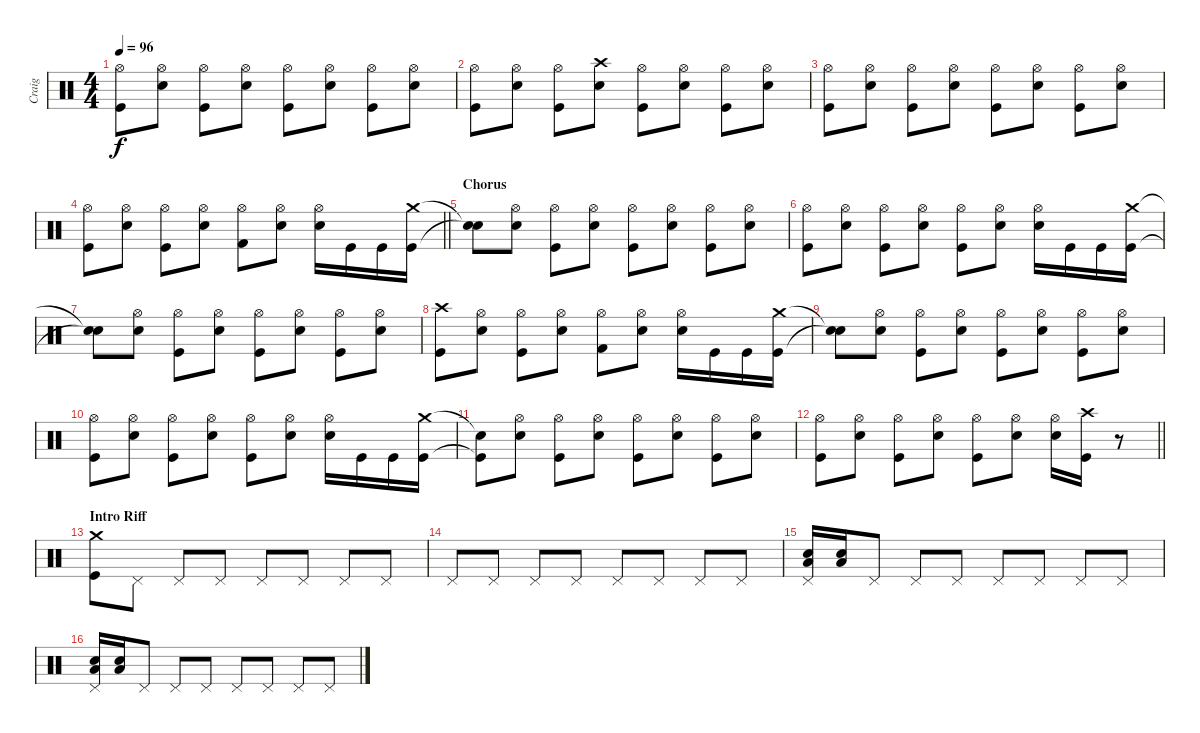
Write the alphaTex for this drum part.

\track ("Craig" "Craig") {instrument percussion}
\staff {score}
\articulation defaults
\ts (4 4)
\tempo 96
\clef neutral
\ks c
("Hi-Hat (open)" "Kick (hit)").8{dy f} ("Hi-Hat (open)" "Snare (hit) 2").8 ("Hi-Hat (open)" "Kick (hit)").8 ("Hi-Hat (open)" "Snare (hit) 2").8 ("Hi-Hat (open)" "Kick (hit)").8 ("Hi-Hat (open)" "Snare (hit) 2").8 ("Hi-Hat (open)" "Kick (hit)").8 ("Hi-Hat (open)" "Snare (hit) 2").8 |
("Hi-Hat (open)" "Kick (hit)").8 ("Hi-Hat (open)" "Snare (hit) 2").8 ("Hi-Hat (open)" "Kick (hit)").8 ("Crash high (hit)" "Snare (hit) 2").8 ("Hi-Hat (open)" "Kick (hit)").8 ("Hi-Hat (open)" "Snare (hit) 2").8 ("Hi-Hat (open)" "Kick (hit)").8 ("Hi-Hat (open)" "Snare (hit) 2").8 |
("Hi-Hat (open)" "Kick (hit)").8 ("Hi-Hat (open)" "Snare (hit) 2").8 ("Hi-Hat (open)" "Kick (hit)").8 ("Hi-Hat (open)" "Snare (hit) 2").8 ("Hi-Hat (open)" "Kick (hit)").8 ("Hi-Hat (open)" "Snare (hit) 2").8 ("Hi-Hat (open)" "Kick (hit)").8 ("Hi-Hat (open)" "Snare (hit) 2").8 |
\barLineRight lightlight
("Hi-Hat (open)" "Kick (hit)").8 ("Hi-Hat (open)" "Snare (hit) 2").8 ("Hi-Hat (open)" "Kick (hit)").8 ("Hi-Hat (open)" "Snare (hit) 2").8 ("Hi-Hat (open)" "Kick (hit) 2").8 ("Hi-Hat (open)" "Snare (hit) 2").8 ("Hi-Hat (open)" "Snare (hit) 2").16 "Kick (hit)".16 "Kick (hit)".16 ("Crash medium (hit)" "Kick (hit)").16 |
\section ("" "Chorus")
("Snare (hit)"{t} "Snare (hit)"{t}).8 ("Hi-Hat (open)" "Snare (hit) 2").8 ("Hi-Hat (open)" "Kick (hit)").8 ("Hi-Hat (open)" "Snare (hit) 2").8 ("Hi-Hat (open)" "Kick (hit)").8 ("Hi-Hat (open)" "Snare (hit) 2").8 ("Hi-Hat (open)" "Kick (hit)").8 ("Hi-Hat (open)" "Snare (hit) 2").8 |
("Hi-Hat (open)" "Kick (hit)").8 ("Hi-Hat (open)" "Snare (hit) 2").8 ("Hi-Hat (open)" "Kick (hit)").8 ("Hi-Hat (open)" "Snare (hit) 2").8 ("Hi-Hat (open)" "Kick (hit)").8 ("Hi-Hat (open)" "Snare (hit) 2").8 ("Hi-Hat (open)" "Snare (hit) 2").16 "Kick (hit)".16 "Kick (hit)".16 ("Crash medium (hit)" "Kick (hit)").16 |
("Snare (hit)"{t} "Snare (hit)"{t}).8 ("Hi-Hat (open)" "Snare (hit) 2").8 ("Hi-Hat (open)" "Kick (hit)").8 ("Hi-Hat (open)" "Snare (hit) 2").8 ("Hi-Hat (open)" "Kick (hit)").8 ("Hi-Hat (open)" "Snare (hit) 2").8 ("Hi-Hat (open)" "Kick (hit)").8 ("Hi-Hat (open)" "Snare (hit) 2").8 |
("Crash high (hit)" "Kick (hit)").8 ("Hi-Hat (open)" "Snare (hit) 2").8 ("Hi-Hat (open)" "Kick (hit)").8 ("Hi-Hat (open)" "Snare (hit) 2").8 ("Hi-Hat (open)" "Kick (hit) 2").8 ("Hi-Hat (open)" "Snare (hit) 2").8 ("Hi-Hat (open)" "Snare (hit) 2").16 "Kick (hit)".16 "Kick (hit)".16 ("Crash medium (hit)" "Kick (hit)").16 |
("Snare (hit)"{t} "Snare (hit)"{t}).8 ("Hi-Hat (open)" "Snare (hit) 2").8 ("Hi-Hat (open)" "Kick (hit)").8 ("Hi-Hat (open)" "Snare (hit) 2").8 ("Hi-Hat (open)" "Kick (hit)").8 ("Hi-Hat (open)" "Snare (hit) 2").8 ("Hi-Hat (open)" "Kick (hit)").8 ("Hi-Hat (open)" "Snare (hit) 2").8 |
("Hi-Hat (open)" "Kick (hit)").8 ("Hi-Hat (open)" "Snare (hit) 2").8 ("Hi-Hat (open)" "Kick (hit)").8 ("Hi-Hat (open)" "Snare (hit) 2").8 ("Hi-Hat (open)" "Kick (hit)").8 ("Hi-Hat (open)" "Snare (hit) 2").8 ("Hi-Hat (open)" "Snare (hit) 2").16 "Kick (hit)".16 "Kick (hit)".16 ("Crash medium (hit)" "Kick (hit)").16 |
("Snare (hit)"{t} "Kick (hit)"{t}).8 ("Hi-Hat (open)" "Snare (hit) 2").8 ("Hi-Hat (open)" "Kick (hit)").8 ("Hi-Hat (open)" "Snare (hit) 2").8 ("Hi-Hat (open)" "Kick (hit)").8 ("Hi-Hat (open)" "Snare (hit) 2").8 ("Hi-Hat (open)" "Kick (hit)").8 ("Hi-Hat (open)" "Snare (hit) 2").8 |
\barLineRight lightlight
("Hi-Hat (open)" "Kick (hit)").8 ("Hi-Hat (open)" "Snare (hit) 2").8 ("Hi-Hat (open)" "Kick (hit)").8 ("Hi-Hat (open)" "Snare (hit) 2").8 ("Hi-Hat (open)" "Kick (hit)").8 ("Hi-Hat (open)" "Snare (hit) 2").8 ("Hi-Hat (open)" "Snare (hit) 2").16 ("Crash high (hit)" "Kick (hit)").16 r.8 |
\section ("" "Intro Riff")
("Crash medium (hit)" "Kick (hit)").8 "Pedal Hi-Hat (hit)".8 "Pedal Hi-Hat (hit)".8 "Pedal Hi-Hat (hit)".8 "Pedal Hi-Hat (hit)".8 "Pedal Hi-Hat (hit)".8 "Pedal Hi-Hat (hit)".8 "Pedal Hi-Hat (hit)".8 |
"Pedal Hi-Hat (hit)".8 "Pedal Hi-Hat (hit)".8 "Pedal Hi-Hat (hit)".8 "Pedal Hi-Hat (hit)".8 "Pedal Hi-Hat (hit)".8 "Pedal Hi-Hat (hit)".8 "Pedal Hi-Hat (hit)".8 "Pedal Hi-Hat (hit)".8 |
("Pedal Hi-Hat (hit)" "Low Floor Tom (hit)" "Snare (hit) 2").16 ("Low Floor Tom (hit)" "Snare (hit) 2").16 "Pedal Hi-Hat (hit)".8 "Pedal Hi-Hat (hit)".8 "Pedal Hi-Hat (hit)".8 "Pedal Hi-Hat (hit)".8 "Pedal Hi-Hat (hit)".8 "Pedal Hi-Hat (hit)".8 "Pedal Hi-Hat (hit)".8 |
("Pedal Hi-Hat (hit)" "Low Floor Tom (hit)" "Snare (hit) 2").16 ("Low Floor Tom (hit)" "Snare (hit) 2").16 "Pedal Hi-Hat (hit)".8 "Pedal Hi-Hat (hit)".8 "Pedal Hi-Hat (hit)".8 "Pedal Hi-Hat (hit)".8 "Pedal Hi-Hat (hit)".8 "Pedal Hi-Hat (hit)".8 "Pedal Hi-Hat (hit)".8
